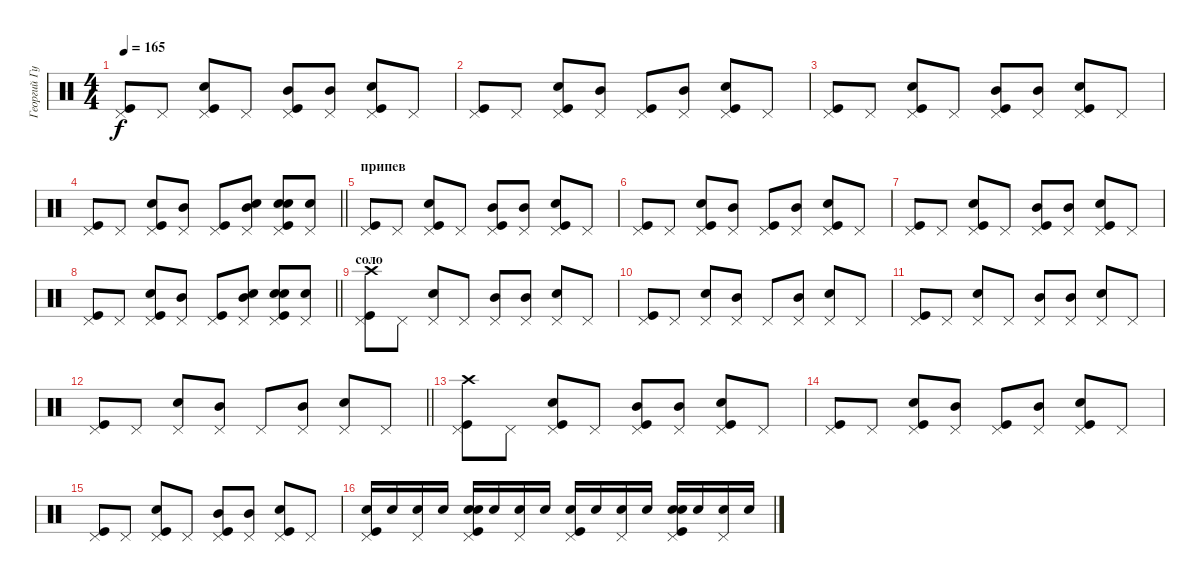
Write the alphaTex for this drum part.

\track ("Георгий Гурьянов" "Георгий Гу") {instrument percussion}
\staff {score}
\articulation defaults
\ts (4 4)
\tempo 165
\clef neutral
\ks c
("Pedal Hi-Hat (hit)" "Kick (hit)").8{dy f} "Pedal Hi-Hat (hit)".8 ("Pedal Hi-Hat (hit)" "Kick (hit)" "Snare (hit) 2").8 "Pedal Hi-Hat (hit)".8 ("Pedal Hi-Hat (hit)" "Kick (hit)" "Mid Tom (hit)").8 ("Pedal Hi-Hat (hit)" "Mid Tom (hit)").8 ("Pedal Hi-Hat (hit)" "Kick (hit)" "Snare (hit) 2").8 "Pedal Hi-Hat (hit)".8 |
("Pedal Hi-Hat (hit)" "Kick (hit)").8 "Pedal Hi-Hat (hit)".8 ("Pedal Hi-Hat (hit)" "Kick (hit)" "Snare (hit) 2").8 ("Pedal Hi-Hat (hit)" "Mid Tom (hit)").8 ("Pedal Hi-Hat (hit)" "Kick (hit)").8 ("Pedal Hi-Hat (hit)" "Mid Tom (hit)").8 ("Pedal Hi-Hat (hit)" "Kick (hit)" "Snare (hit) 2").8 "Pedal Hi-Hat (hit)".8 |
("Pedal Hi-Hat (hit)" "Kick (hit)").8 "Pedal Hi-Hat (hit)".8 ("Pedal Hi-Hat (hit)" "Kick (hit)" "Snare (hit) 2").8 "Pedal Hi-Hat (hit)".8 ("Pedal Hi-Hat (hit)" "Kick (hit)" "Mid Tom (hit)").8 ("Pedal Hi-Hat (hit)" "Mid Tom (hit)").8 ("Pedal Hi-Hat (hit)" "Kick (hit)" "Snare (hit) 2").8 "Pedal Hi-Hat (hit)".8 |
\barLineRight lightlight
("Pedal Hi-Hat (hit)" "Kick (hit)").8 "Pedal Hi-Hat (hit)".8 ("Pedal Hi-Hat (hit)" "Kick (hit)" "Snare (hit) 2").8 ("Pedal Hi-Hat (hit)" "Mid Tom (hit)").8 ("Pedal Hi-Hat (hit)" "Kick (hit)").8 ("Pedal Hi-Hat (hit)" "Mid Tom (hit)" "Snare (hit) 2").8 ("Pedal Hi-Hat (hit)" "Kick (hit)" "Snare (hit) 2" "Snare (hit) 2").8 ("Pedal Hi-Hat (hit)" "Snare (hit) 2").8 |
\section ("" "припев")
("Pedal Hi-Hat (hit)" "Kick (hit)").8 "Pedal Hi-Hat (hit)".8 ("Pedal Hi-Hat (hit)" "Kick (hit)" "Snare (hit) 2").8 "Pedal Hi-Hat (hit)".8 ("Pedal Hi-Hat (hit)" "Kick (hit)" "Mid Tom (hit)").8 ("Pedal Hi-Hat (hit)" "Mid Tom (hit)").8 ("Pedal Hi-Hat (hit)" "Kick (hit)" "Snare (hit) 2").8 "Pedal Hi-Hat (hit)".8 |
("Pedal Hi-Hat (hit)" "Kick (hit)").8 "Pedal Hi-Hat (hit)".8 ("Pedal Hi-Hat (hit)" "Kick (hit)" "Snare (hit) 2").8 ("Pedal Hi-Hat (hit)" "Mid Tom (hit)").8 ("Pedal Hi-Hat (hit)" "Kick (hit)").8 ("Pedal Hi-Hat (hit)" "Mid Tom (hit)").8 ("Pedal Hi-Hat (hit)" "Kick (hit)" "Snare (hit) 2").8 "Pedal Hi-Hat (hit)".8 |
("Pedal Hi-Hat (hit)" "Kick (hit)").8 "Pedal Hi-Hat (hit)".8 ("Pedal Hi-Hat (hit)" "Kick (hit)" "Snare (hit) 2").8 "Pedal Hi-Hat (hit)".8 ("Pedal Hi-Hat (hit)" "Kick (hit)" "Mid Tom (hit)").8 ("Pedal Hi-Hat (hit)" "Mid Tom (hit)").8 ("Pedal Hi-Hat (hit)" "Kick (hit)" "Snare (hit) 2").8 "Pedal Hi-Hat (hit)".8 |
\barLineRight lightlight
("Pedal Hi-Hat (hit)" "Kick (hit)").8 "Pedal Hi-Hat (hit)".8 ("Pedal Hi-Hat (hit)" "Kick (hit)" "Snare (hit) 2").8 ("Pedal Hi-Hat (hit)" "Mid Tom (hit)").8 ("Pedal Hi-Hat (hit)" "Kick (hit)").8 ("Pedal Hi-Hat (hit)" "Mid Tom (hit)" "Snare (hit) 2").8 ("Pedal Hi-Hat (hit)" "Kick (hit)" "Snare (hit) 2" "Snare (hit) 2").8 ("Pedal Hi-Hat (hit)" "Snare (hit) 2").8 |
\section ("" "соло")
("Pedal Hi-Hat (hit)" "Kick (hit)" "Crash high (hit)").8 "Pedal Hi-Hat (hit)".8 ("Pedal Hi-Hat (hit)" "Snare (hit) 2").8 "Pedal Hi-Hat (hit)".8 ("Pedal Hi-Hat (hit)" "Mid Tom (hit)").8 ("Pedal Hi-Hat (hit)" "Mid Tom (hit)").8 ("Pedal Hi-Hat (hit)" "Snare (hit) 2").8 "Pedal Hi-Hat (hit)".8 |
("Pedal Hi-Hat (hit)" "Kick (hit)").8 "Pedal Hi-Hat (hit)".8 ("Pedal Hi-Hat (hit)" "Snare (hit) 2").8 ("Pedal Hi-Hat (hit)" "Mid Tom (hit)").8 "Pedal Hi-Hat (hit)".8 ("Pedal Hi-Hat (hit)" "Mid Tom (hit)").8 ("Pedal Hi-Hat (hit)" "Snare (hit) 2").8 "Pedal Hi-Hat (hit)".8 |
("Pedal Hi-Hat (hit)" "Kick (hit)").8 "Pedal Hi-Hat (hit)".8 ("Pedal Hi-Hat (hit)" "Snare (hit) 2").8 "Pedal Hi-Hat (hit)".8 ("Pedal Hi-Hat (hit)" "Mid Tom (hit)").8 ("Pedal Hi-Hat (hit)" "Mid Tom (hit)").8 ("Pedal Hi-Hat (hit)" "Snare (hit) 2").8 "Pedal Hi-Hat (hit)".8 |
\barLineRight lightlight
("Pedal Hi-Hat (hit)" "Kick (hit)").8 "Pedal Hi-Hat (hit)".8 ("Pedal Hi-Hat (hit)" "Snare (hit) 2").8 ("Pedal Hi-Hat (hit)" "Mid Tom (hit)").8 "Pedal Hi-Hat (hit)".8 ("Pedal Hi-Hat (hit)" "Mid Tom (hit)").8 ("Pedal Hi-Hat (hit)" "Snare (hit) 2").8 "Pedal Hi-Hat (hit)".8 |
\section ("" "")
("Pedal Hi-Hat (hit)" "Kick (hit)" "Crash high (hit)").8 "Pedal Hi-Hat (hit)".8 ("Pedal Hi-Hat (hit)" "Kick (hit)" "Snare (hit) 2").8 "Pedal Hi-Hat (hit)".8 ("Pedal Hi-Hat (hit)" "Kick (hit)" "Mid Tom (hit)").8 ("Pedal Hi-Hat (hit)" "Mid Tom (hit)").8 ("Pedal Hi-Hat (hit)" "Kick (hit)" "Snare (hit) 2").8 "Pedal Hi-Hat (hit)".8 |
("Pedal Hi-Hat (hit)" "Kick (hit)").8 "Pedal Hi-Hat (hit)".8 ("Pedal Hi-Hat (hit)" "Kick (hit)" "Snare (hit) 2").8 ("Pedal Hi-Hat (hit)" "Mid Tom (hit)").8 ("Pedal Hi-Hat (hit)" "Kick (hit)").8 ("Pedal Hi-Hat (hit)" "Mid Tom (hit)").8 ("Pedal Hi-Hat (hit)" "Kick (hit)" "Snare (hit) 2").8 "Pedal Hi-Hat (hit)".8 |
("Pedal Hi-Hat (hit)" "Kick (hit)").8 "Pedal Hi-Hat (hit)".8 ("Pedal Hi-Hat (hit)" "Kick (hit)" "Snare (hit) 2").8 "Pedal Hi-Hat (hit)".8 ("Pedal Hi-Hat (hit)" "Kick (hit)" "Mid Tom (hit)").8 ("Pedal Hi-Hat (hit)" "Mid Tom (hit)").8 ("Pedal Hi-Hat (hit)" "Kick (hit)" "Snare (hit) 2").8 "Pedal Hi-Hat (hit)".8 |
("Electric Snare (hit)" "Kick (hit)" "Pedal Hi-Hat (hit)").16 "Electric Snare (hit)".16 ("Electric Snare (hit)" "Pedal Hi-Hat (hit)").16 "Electric Snare (hit)".16 ("Electric Snare (hit)" "Kick (hit)" "Pedal Hi-Hat (hit)" "Snare (hit) 2").16 "Electric Snare (hit)".16 ("Electric Snare (hit)" "Pedal Hi-Hat (hit)").16 "Electric Snare (hit)".16 ("Electric Snare (hit)" "Kick (hit)" "Pedal Hi-Hat (hit)").16 "Electric Snare (hit)".16 ("Electric Snare (hit)" "Pedal Hi-Hat (hit)").16 "Electric Snare (hit)".16 ("Electric Snare (hit)" "Kick (hit)" "Pedal Hi-Hat (hit)" "Snare (hit) 2").16 "Electric Snare (hit)".16 ("Electric Snare (hit)" "Pedal Hi-Hat (hit)").16 "Electric Snare (hit)".16
